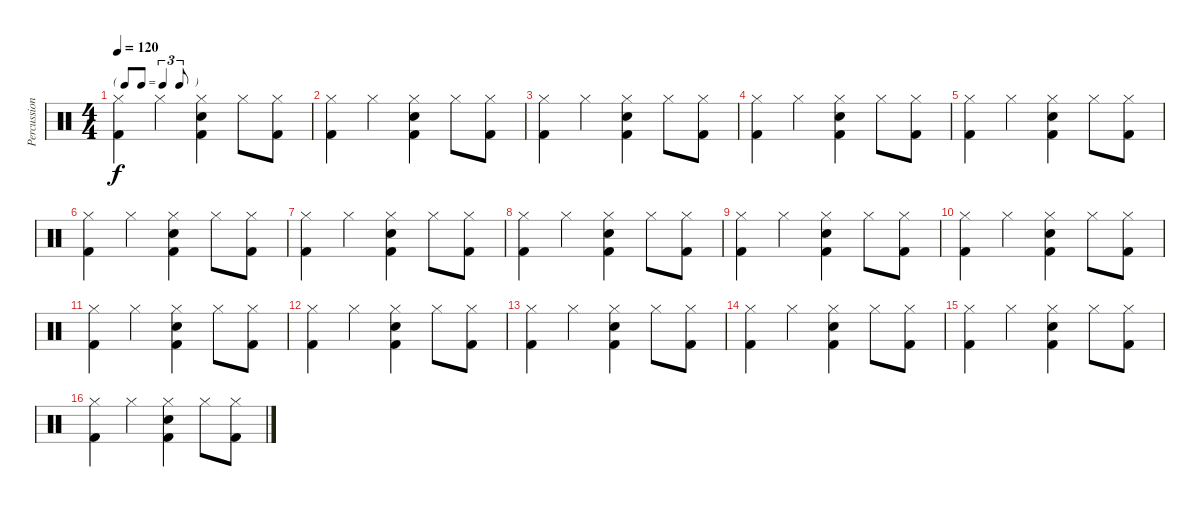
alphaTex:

\track ("Percussion" "Percussion") {instrument percussion}
\staff {score}
\articulation defaults
\ts (4 4)
\tf triplet8th
\tempo 120
\clef neutral
\ks c
("Hi-Hat (closed)" "Kick (hit) 2").4{dy f} "Hi-Hat (closed)".4 ("Hi-Hat (closed)" "Electric Snare (hit)" "Kick (hit) 2").4 "Hi-Hat (closed)".8 ("Hi-Hat (closed)" "Kick (hit) 2").8 |
("Hi-Hat (closed)" "Kick (hit) 2").4 "Hi-Hat (closed)".4 ("Hi-Hat (closed)" "Electric Snare (hit)" "Kick (hit) 2").4 "Hi-Hat (closed)".8 ("Hi-Hat (closed)" "Kick (hit) 2").8 |
("Hi-Hat (closed)" "Kick (hit) 2").4 "Hi-Hat (closed)".4 ("Hi-Hat (closed)" "Electric Snare (hit)" "Kick (hit) 2").4 "Hi-Hat (closed)".8 ("Hi-Hat (closed)" "Kick (hit) 2").8 |
("Hi-Hat (closed)" "Kick (hit) 2").4 "Hi-Hat (closed)".4 ("Hi-Hat (closed)" "Electric Snare (hit)" "Kick (hit) 2").4 "Hi-Hat (closed)".8 ("Hi-Hat (closed)" "Kick (hit) 2").8 |
("Hi-Hat (closed)" "Kick (hit) 2").4 "Hi-Hat (closed)".4 ("Hi-Hat (closed)" "Electric Snare (hit)" "Kick (hit) 2").4 "Hi-Hat (closed)".8 ("Hi-Hat (closed)" "Kick (hit) 2").8 |
("Hi-Hat (closed)" "Kick (hit) 2").4 "Hi-Hat (closed)".4 ("Hi-Hat (closed)" "Electric Snare (hit)" "Kick (hit) 2").4 "Hi-Hat (closed)".8 ("Hi-Hat (closed)" "Kick (hit) 2").8 |
("Hi-Hat (closed)" "Kick (hit) 2").4 "Hi-Hat (closed)".4 ("Hi-Hat (closed)" "Electric Snare (hit)" "Kick (hit) 2").4 "Hi-Hat (closed)".8 ("Hi-Hat (closed)" "Kick (hit) 2").8 |
("Hi-Hat (closed)" "Kick (hit) 2").4 "Hi-Hat (closed)".4 ("Hi-Hat (closed)" "Electric Snare (hit)" "Kick (hit) 2").4 "Hi-Hat (closed)".8 ("Hi-Hat (closed)" "Kick (hit) 2").8 |
("Hi-Hat (closed)" "Kick (hit) 2").4 "Hi-Hat (closed)".4 ("Hi-Hat (closed)" "Electric Snare (hit)" "Kick (hit) 2").4 "Hi-Hat (closed)".8 ("Hi-Hat (closed)" "Kick (hit) 2").8 |
("Hi-Hat (closed)" "Kick (hit) 2").4 "Hi-Hat (closed)".4 ("Hi-Hat (closed)" "Electric Snare (hit)" "Kick (hit) 2").4 "Hi-Hat (closed)".8 ("Hi-Hat (closed)" "Kick (hit) 2").8 |
("Hi-Hat (closed)" "Kick (hit) 2").4 "Hi-Hat (closed)".4 ("Hi-Hat (closed)" "Electric Snare (hit)" "Kick (hit) 2").4 "Hi-Hat (closed)".8 ("Hi-Hat (closed)" "Kick (hit) 2").8 |
("Hi-Hat (closed)" "Kick (hit) 2").4 "Hi-Hat (closed)".4 ("Hi-Hat (closed)" "Electric Snare (hit)" "Kick (hit) 2").4 "Hi-Hat (closed)".8 ("Hi-Hat (closed)" "Kick (hit) 2").8 |
("Hi-Hat (closed)" "Kick (hit) 2").4 "Hi-Hat (closed)".4 ("Hi-Hat (closed)" "Electric Snare (hit)" "Kick (hit) 2").4 "Hi-Hat (closed)".8 ("Hi-Hat (closed)" "Kick (hit) 2").8 |
("Hi-Hat (closed)" "Kick (hit) 2").4 "Hi-Hat (closed)".4 ("Hi-Hat (closed)" "Electric Snare (hit)" "Kick (hit) 2").4 "Hi-Hat (closed)".8 ("Hi-Hat (closed)" "Kick (hit) 2").8 |
("Hi-Hat (closed)" "Kick (hit) 2").4 "Hi-Hat (closed)".4 ("Hi-Hat (closed)" "Electric Snare (hit)" "Kick (hit) 2").4 "Hi-Hat (closed)".8 ("Hi-Hat (closed)" "Kick (hit) 2").8 |
("Hi-Hat (closed)" "Kick (hit) 2").4 "Hi-Hat (closed)".4 ("Hi-Hat (closed)" "Electric Snare (hit)" "Kick (hit) 2").4 "Hi-Hat (closed)".8 ("Hi-Hat (closed)" "Kick (hit) 2").8
